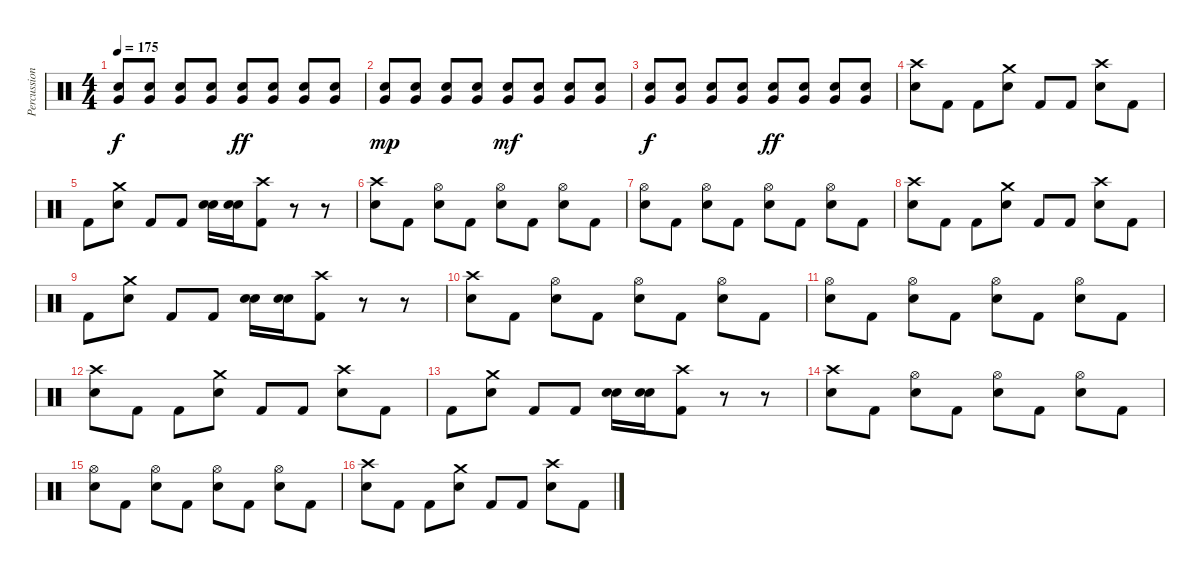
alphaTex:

\track ("Percussion" "Percussion") {instrument percussion}
\staff {score}
\articulation defaults
\ts (4 4)
\tempo 175
\clef neutral
\ks c
("Snare (hit) 2" "Very Low Tom (hit)").8{dy f} ("Snare (hit) 2" "Very Low Tom (hit)").8 ("Snare (hit) 2" "Very Low Tom (hit)").8 ("Snare (hit) 2" "Very Low Tom (hit)").8 ("Snare (hit) 2" "Very Low Tom (hit)").8{dy ff} ("Snare (hit) 2" "Very Low Tom (hit)").8 ("Snare (hit) 2" "Very Low Tom (hit)").8 ("Snare (hit) 2" "Very Low Tom (hit)").8 |
("Snare (hit) 2" "Very Low Tom (hit)").8{dy mp} ("Snare (hit) 2" "Very Low Tom (hit)").8 ("Snare (hit) 2" "Very Low Tom (hit)").8 ("Snare (hit) 2" "Very Low Tom (hit)").8 ("Snare (hit) 2" "Very Low Tom (hit)").8{dy mf} ("Snare (hit) 2" "Very Low Tom (hit)").8 ("Snare (hit) 2" "Very Low Tom (hit)").8 ("Snare (hit) 2" "Very Low Tom (hit)").8 |
("Snare (hit) 2" "Very Low Tom (hit)").8{dy f} ("Snare (hit) 2" "Very Low Tom (hit)").8 ("Snare (hit) 2" "Very Low Tom (hit)").8 ("Snare (hit) 2" "Very Low Tom (hit)").8 ("Snare (hit) 2" "Very Low Tom (hit)").8{dy ff} ("Snare (hit) 2" "Very Low Tom (hit)").8 ("Snare (hit) 2" "Very Low Tom (hit)").8 ("Snare (hit) 2" "Very Low Tom (hit)").8 |
("Crash high (hit)" "Snare (hit) 2").8 "Kick (hit) 2".8 "Kick (hit) 2".8 ("Crash medium (hit)" "Snare (hit) 2").8 "Kick (hit) 2".8 "Kick (hit) 2".8 ("Crash high (hit)" "Snare (hit) 2").8 "Kick (hit) 2".8 |
"Kick (hit) 2".8 ("Crash medium (hit)" "Snare (hit) 2").8 "Kick (hit) 2".8 "Kick (hit) 2".8 ("Snare (hit) 2" "Electric Snare (hit)").16 ("Snare (hit) 2" "Electric Snare (hit)").16 ("Crash high (hit)" "Kick (hit) 2").8 r.8 r.8 |
("Crash high (hit)" "Snare (hit) 2").8 "Kick (hit) 2".8 ("Hi-Hat (open)" "Snare (hit) 2").8 "Kick (hit) 2".8 ("Hi-Hat (open)" "Snare (hit) 2").8 "Kick (hit) 2".8 ("Hi-Hat (open)" "Snare (hit) 2").8 "Kick (hit) 2".8 |
("Hi-Hat (open)" "Snare (hit) 2").8 "Kick (hit) 2".8 ("Hi-Hat (open)" "Snare (hit) 2").8 "Kick (hit) 2".8 ("Hi-Hat (open)" "Snare (hit) 2").8 "Kick (hit) 2".8 ("Hi-Hat (open)" "Snare (hit) 2").8 "Kick (hit) 2".8 |
("Crash high (hit)" "Snare (hit) 2").8 "Kick (hit) 2".8 "Kick (hit) 2".8 ("Crash medium (hit)" "Snare (hit) 2").8 "Kick (hit) 2".8 "Kick (hit) 2".8 ("Crash high (hit)" "Snare (hit) 2").8 "Kick (hit) 2".8 |
"Kick (hit) 2".8 ("Crash medium (hit)" "Snare (hit) 2").8 "Kick (hit) 2".8 "Kick (hit) 2".8 ("Snare (hit) 2" "Electric Snare (hit)").16 ("Snare (hit) 2" "Electric Snare (hit)").16 ("Crash high (hit)" "Kick (hit) 2").8 r.8 r.8 |
("Crash high (hit)" "Snare (hit) 2").8 "Kick (hit) 2".8 ("Hi-Hat (open)" "Snare (hit) 2").8 "Kick (hit) 2".8 ("Hi-Hat (open)" "Snare (hit) 2").8 "Kick (hit) 2".8 ("Hi-Hat (open)" "Snare (hit) 2").8 "Kick (hit) 2".8 |
("Hi-Hat (open)" "Snare (hit) 2").8 "Kick (hit) 2".8 ("Hi-Hat (open)" "Snare (hit) 2").8 "Kick (hit) 2".8 ("Hi-Hat (open)" "Snare (hit) 2").8 "Kick (hit) 2".8 ("Hi-Hat (open)" "Snare (hit) 2").8 "Kick (hit) 2".8 |
("Crash high (hit)" "Snare (hit) 2").8 "Kick (hit) 2".8 "Kick (hit) 2".8 ("Crash medium (hit)" "Snare (hit) 2").8 "Kick (hit) 2".8 "Kick (hit) 2".8 ("Crash high (hit)" "Snare (hit) 2").8 "Kick (hit) 2".8 |
"Kick (hit) 2".8 ("Crash medium (hit)" "Snare (hit) 2").8 "Kick (hit) 2".8 "Kick (hit) 2".8 ("Snare (hit) 2" "Electric Snare (hit)").16 ("Snare (hit) 2" "Electric Snare (hit)").16 ("Crash high (hit)" "Kick (hit) 2").8 r.8 r.8 |
("Crash high (hit)" "Snare (hit) 2").8 "Kick (hit) 2".8 ("Hi-Hat (open)" "Snare (hit) 2").8 "Kick (hit) 2".8 ("Hi-Hat (open)" "Snare (hit) 2").8 "Kick (hit) 2".8 ("Hi-Hat (open)" "Snare (hit) 2").8 "Kick (hit) 2".8 |
("Hi-Hat (open)" "Snare (hit) 2").8 "Kick (hit) 2".8 ("Hi-Hat (open)" "Snare (hit) 2").8 "Kick (hit) 2".8 ("Hi-Hat (open)" "Snare (hit) 2").8 "Kick (hit) 2".8 ("Hi-Hat (open)" "Snare (hit) 2").8 "Kick (hit) 2".8 |
("Crash high (hit)" "Snare (hit) 2").8 "Kick (hit) 2".8 "Kick (hit) 2".8 ("Crash medium (hit)" "Snare (hit) 2").8 "Kick (hit) 2".8 "Kick (hit) 2".8 ("Crash high (hit)" "Snare (hit) 2").8 "Kick (hit) 2".8
